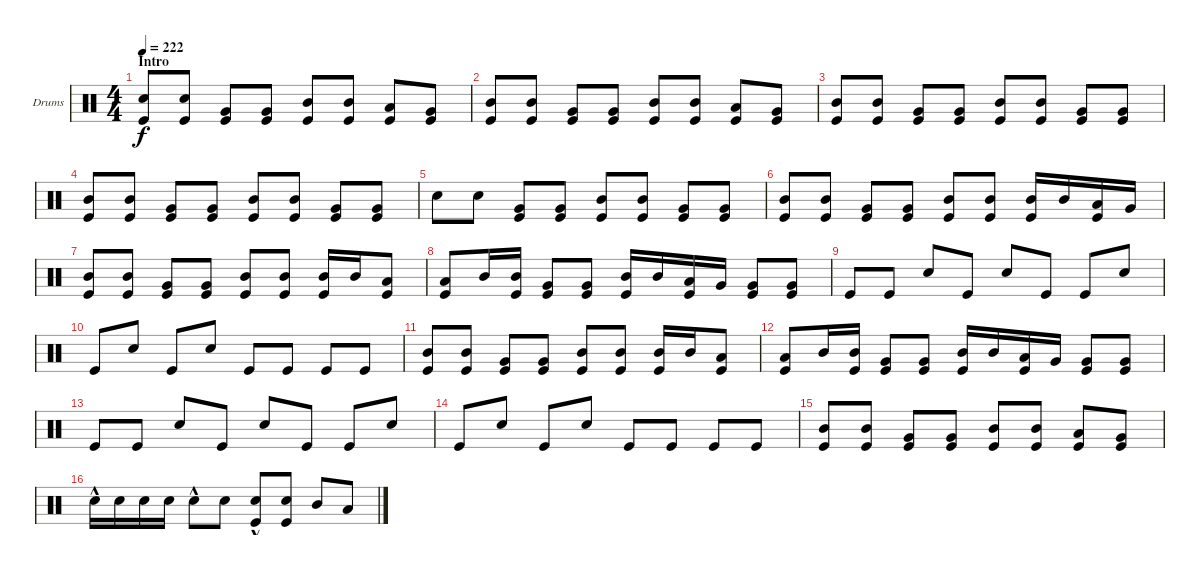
\defaultSystemsLayout 4
\bracketExtendMode groupsimilarinstruments
\firstSystemTrackNameOrientation horizontal
\otherSystemsTrackNameOrientation horizontal
\track ("Drumkit" "Drums") {mute instrument percussion}
\staff {score}
\articulation defaults
\ts (4 4)
\section ("" "Intro")
\tempo 222
\clef neutral
\ks c
("Snare (hit) 2" "Kick (hit)").8{dy f} ("Snare (hit) 2" "Kick (hit)").8 ("Very Low Tom (hit)" "Kick (hit)").8 ("Very Low Tom (hit)" "Kick (hit)").8 ("Mid Tom (hit)" "Kick (hit)").8 ("Mid Tom (hit)" "Kick (hit)").8 ("Low Tom (hit)" "Kick (hit)").8 ("Very Low Tom (hit)" "Kick (hit)").8 |
("Mid Tom (hit)" "Kick (hit)").8 ("Mid Tom (hit)" "Kick (hit)").8 ("Very Low Tom (hit)" "Kick (hit)").8 ("Very Low Tom (hit)" "Kick (hit)").8 ("Mid Tom (hit)" "Kick (hit)").8 ("Mid Tom (hit)" "Kick (hit)").8 ("Low Tom (hit)" "Kick (hit)").8 ("Very Low Tom (hit)" "Kick (hit)").8 |
("Mid Tom (hit)" "Kick (hit)").8 ("Mid Tom (hit)" "Kick (hit)").8 ("Very Low Tom (hit)" "Kick (hit)").8 ("Very Low Tom (hit)" "Kick (hit)").8 ("Mid Tom (hit)" "Kick (hit)").8 ("Mid Tom (hit)" "Kick (hit)").8 ("Very Low Tom (hit)" "Kick (hit)").8 ("Very Low Tom (hit)" "Kick (hit)").8 |
("Mid Tom (hit)" "Kick (hit)").8 ("Mid Tom (hit)" "Kick (hit)").8 ("Very Low Tom (hit)" "Kick (hit)").8 ("Very Low Tom (hit)" "Kick (hit)").8 ("Mid Tom (hit)" "Kick (hit)").8 ("Mid Tom (hit)" "Kick (hit)").8 ("Very Low Tom (hit)" "Kick (hit)").8 ("Very Low Tom (hit)" "Kick (hit)").8 |
"Snare (hit) 2".8 "Snare (hit) 2".8 ("Kick (hit)" "Very Low Tom (hit)").8 ("Kick (hit)" "Very Low Tom (hit)").8 ("Mid Tom (hit)" "Kick (hit)").8 ("Mid Tom (hit)" "Kick (hit)").8 ("Very Low Tom (hit)" "Kick (hit)").8 ("Very Low Tom (hit)" "Kick (hit)").8 |
("Mid Tom (hit)" "Kick (hit)").8 ("Mid Tom (hit)" "Kick (hit)").8 ("Very Low Tom (hit)" "Kick (hit)").8 ("Very Low Tom (hit)" "Kick (hit)").8 ("Mid Tom (hit)" "Kick (hit)").8 ("Mid Tom (hit)" "Kick (hit)").8 ("Kick (hit)" "Mid Tom (hit)").16 "Mid Tom (hit)".16 ("Kick (hit)" "Low Tom (hit)").16 "Very Low Tom (hit)".16 |
("Mid Tom (hit)" "Kick (hit)").8 ("Mid Tom (hit)" "Kick (hit)").8 ("Very Low Tom (hit)" "Kick (hit)").8 ("Very Low Tom (hit)" "Kick (hit)").8 ("Mid Tom (hit)" "Kick (hit)").8 ("Mid Tom (hit)" "Kick (hit)").8 ("Kick (hit)" "Mid Tom (hit)").16 "Mid Tom (hit)".16 ("Kick (hit)" "Low Tom (hit)").8 |
("Kick (hit)" "Low Tom (hit)").8 "Mid Tom (hit)".16 ("Kick (hit)" "Mid Tom (hit)").16 ("Very Low Tom (hit)" "Kick (hit)").8 ("Very Low Tom (hit)" "Kick (hit)").8 ("Kick (hit)" "Mid Tom (hit)").16 "Mid Tom (hit)".16 ("Kick (hit)" "Low Tom (hit)").16 "Very Low Tom (hit)".16 ("Very Low Tom (hit)" "Kick (hit)").8 ("Very Low Tom (hit)" "Kick (hit)").8 |
"Kick (hit)".8 "Kick (hit)".8 "Snare (hit) 2".8 "Kick (hit)".8 "Snare (hit) 2".8 "Kick (hit)".8 "Kick (hit)".8 "Snare (hit) 2".8 |
"Kick (hit)".8 "Snare (hit) 2".8 "Kick (hit)".8 "Snare (hit) 2".8 "Kick (hit)".8 "Kick (hit)".8 "Kick (hit)".8 "Kick (hit)".8 |
("Mid Tom (hit)" "Kick (hit)").8 ("Mid Tom (hit)" "Kick (hit)").8 ("Very Low Tom (hit)" "Kick (hit)").8 ("Very Low Tom (hit)" "Kick (hit)").8 ("Mid Tom (hit)" "Kick (hit)").8 ("Mid Tom (hit)" "Kick (hit)").8 ("Kick (hit)" "Mid Tom (hit)").16 "Mid Tom (hit)".16 ("Kick (hit)" "Low Tom (hit)").8 |
("Kick (hit)" "Low Tom (hit)").8 "Mid Tom (hit)".16 ("Kick (hit)" "Mid Tom (hit)").16 ("Very Low Tom (hit)" "Kick (hit)").8 ("Very Low Tom (hit)" "Kick (hit)").8 ("Kick (hit)" "Mid Tom (hit)").16 "Mid Tom (hit)".16 ("Kick (hit)" "Low Tom (hit)").16 "Very Low Tom (hit)".16 ("Very Low Tom (hit)" "Kick (hit)").8 ("Very Low Tom (hit)" "Kick (hit)").8 |
"Kick (hit)".8 "Kick (hit)".8 "Snare (hit) 2".8 "Kick (hit)".8 "Snare (hit) 2".8 "Kick (hit)".8 "Kick (hit)".8 "Snare (hit) 2".8 |
"Kick (hit)".8 "Snare (hit) 2".8 "Kick (hit)".8 "Snare (hit) 2".8 "Kick (hit)".8 "Kick (hit)".8 "Kick (hit)".8 "Kick (hit)".8 |
("Mid Tom (hit)" "Kick (hit)").8 ("Mid Tom (hit)" "Kick (hit)").8 ("Very Low Tom (hit)" "Kick (hit)").8 ("Very Low Tom (hit)" "Kick (hit)").8 ("Mid Tom (hit)" "Kick (hit)").8 ("Mid Tom (hit)" "Kick (hit)").8 ("Low Tom (hit)" "Kick (hit)").8 ("Very Low Tom (hit)" "Kick (hit)").8 |
"Snare (hit) 2"{hac}.16 "Snare (hit) 2".16 "Snare (hit) 2".16 "Snare (hit) 2".16 "Snare (hit) 2"{hac}.8 "Snare (hit) 2".8 ("Kick (hit)" "Snare (hit) 2"{hac}).8 ("Kick (hit)" "Snare (hit) 2").8 "Mid Tom (hit)".8 "Low Tom (hit)".8
